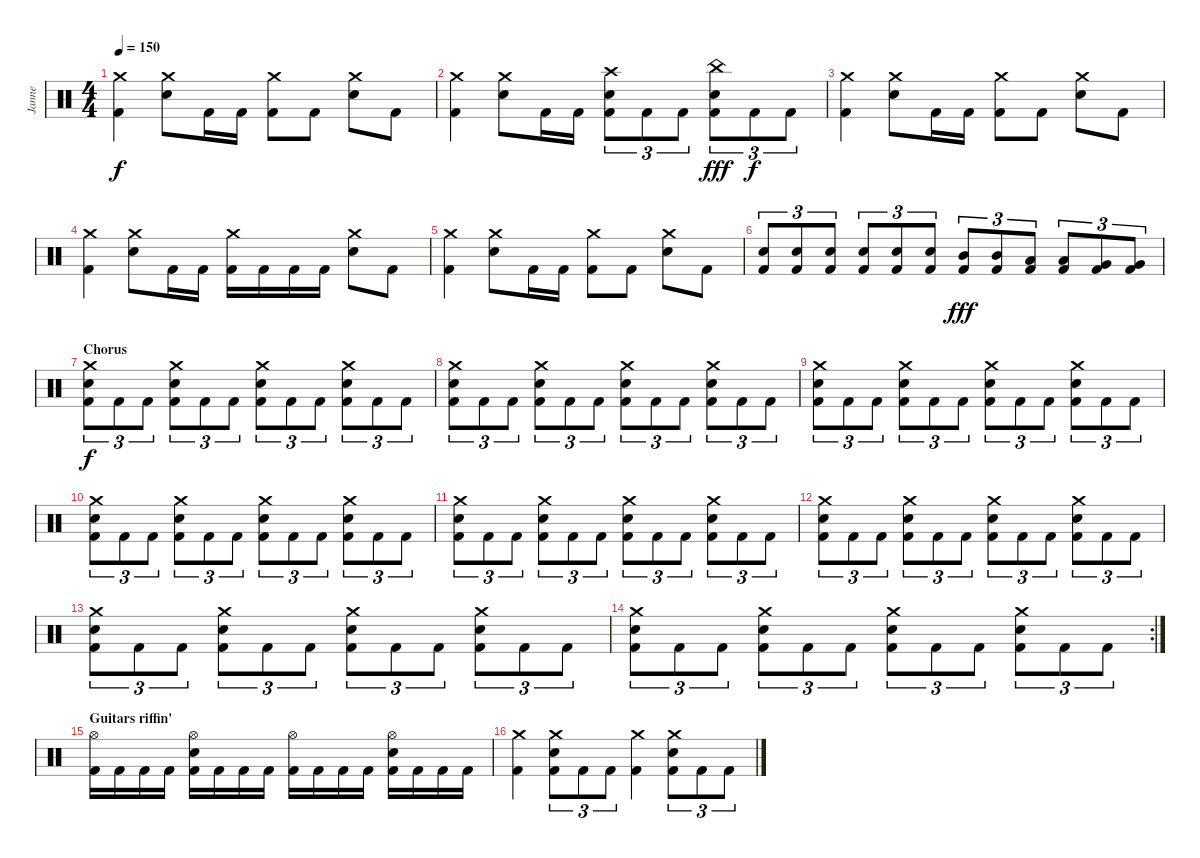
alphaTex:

\track ("Janne" "Janne") {instrument percussion}
\staff {score}
\articulation defaults
\ts (4 4)
\tempo 150
\clef neutral
\ks c
("Crash medium (hit)" "Kick (hit) 2").4{dy f} ("Crash medium (hit)" "Electric Snare (hit)").8 "Kick (hit) 2".16 "Kick (hit) 2".16 ("Crash medium (hit)" "Kick (hit) 2").8 "Kick (hit) 2".8 ("Crash medium (hit)" "Electric Snare (hit)").8 "Kick (hit) 2".8 |
("Crash medium (hit)" "Kick (hit) 2").4 ("Crash medium (hit)" "Electric Snare (hit)").8 "Kick (hit) 2".16 "Kick (hit) 2".16 ("Crash high (hit)" "Electric Snare (hit)" "Kick (hit) 2").8{tu (3 2)} "Kick (hit) 2".8{tu (3 2)} "Kick (hit) 2".8{tu (3 2)} ("China (hit)" "Electric Snare (hit)" "Kick (hit) 2").8{tu (3 2) dy fff} "Kick (hit) 2".8{tu (3 2) dy f} "Kick (hit) 2".8{tu (3 2)} |
("Crash medium (hit)" "Kick (hit) 2").4 ("Crash medium (hit)" "Electric Snare (hit)").8 "Kick (hit) 2".16 "Kick (hit) 2".16 ("Crash medium (hit)" "Kick (hit) 2").8 "Kick (hit) 2".8 ("Crash medium (hit)" "Electric Snare (hit)").8 "Kick (hit) 2".8 |
("Crash medium (hit)" "Kick (hit) 2").4 ("Crash medium (hit)" "Electric Snare (hit)").8 "Kick (hit) 2".16 "Kick (hit) 2".16 ("Crash medium (hit)" "Kick (hit) 2").16 "Kick (hit) 2".16 "Kick (hit) 2".16 "Kick (hit) 2".16 ("Crash medium (hit)" "Electric Snare (hit)").8 "Kick (hit) 2".8 |
("Crash medium (hit)" "Kick (hit) 2").4 ("Crash medium (hit)" "Electric Snare (hit)").8 "Kick (hit) 2".16 "Kick (hit) 2".16 ("Crash medium (hit)" "Kick (hit) 2").8 "Kick (hit) 2".8 ("Crash medium (hit)" "Electric Snare (hit)").8 "Kick (hit) 2".8 |
("Electric Snare (hit)" "Kick (hit) 2").8{tu (3 2)} ("Electric Snare (hit)" "Kick (hit) 2").8{tu (3 2)} ("Electric Snare (hit)" "Kick (hit) 2").8{tu (3 2)} ("Electric Snare (hit)" "Kick (hit) 2").8{tu (3 2)} ("Electric Snare (hit)" "Kick (hit) 2").8{tu (3 2)} ("Electric Snare (hit)" "Kick (hit) 2").8{tu (3 2)} ("Mid Tom (hit)" "Kick (hit) 2").8{tu (3 2) dy fff} ("Mid Tom (hit)" "Kick (hit) 2").8{tu (3 2)} ("Low Tom (hit)" "Kick (hit) 2").8{tu (3 2)} ("Low Tom (hit)" "Kick (hit) 2").8{tu (3 2)} ("Very Low Tom (hit)" "Kick (hit) 2").8{tu (3 2)} ("Very Low Tom (hit)" "Kick (hit) 2").8{tu (3 2)} |
\section ("" "Chorus")
("Crash medium (hit)" "Electric Snare (hit)" "Kick (hit) 2").8{tu (3 2) dy f} "Kick (hit) 2".8{tu (3 2)} "Kick (hit) 2".8{tu (3 2)} ("Crash medium (hit)" "Electric Snare (hit)" "Kick (hit) 2").8{tu (3 2)} "Kick (hit) 2".8{tu (3 2)} "Kick (hit) 2".8{tu (3 2)} ("Crash medium (hit)" "Electric Snare (hit)" "Kick (hit) 2").8{tu (3 2)} "Kick (hit) 2".8{tu (3 2)} "Kick (hit) 2".8{tu (3 2)} ("Crash medium (hit)" "Electric Snare (hit)" "Kick (hit) 2").8{tu (3 2)} "Kick (hit) 2".8{tu (3 2)} "Kick (hit) 2".8{tu (3 2)} |
("Crash medium (hit)" "Electric Snare (hit)" "Kick (hit) 2").8{tu (3 2)} "Kick (hit) 2".8{tu (3 2)} "Kick (hit) 2".8{tu (3 2)} ("Crash medium (hit)" "Electric Snare (hit)" "Kick (hit) 2").8{tu (3 2)} "Kick (hit) 2".8{tu (3 2)} "Kick (hit) 2".8{tu (3 2)} ("Crash medium (hit)" "Electric Snare (hit)" "Kick (hit) 2").8{tu (3 2)} "Kick (hit) 2".8{tu (3 2)} "Kick (hit) 2".8{tu (3 2)} ("Crash medium (hit)" "Electric Snare (hit)" "Kick (hit) 2").8{tu (3 2)} "Kick (hit) 2".8{tu (3 2)} "Kick (hit) 2".8{tu (3 2)} |
("Crash medium (hit)" "Electric Snare (hit)" "Kick (hit) 2").8{tu (3 2)} "Kick (hit) 2".8{tu (3 2)} "Kick (hit) 2".8{tu (3 2)} ("Crash medium (hit)" "Electric Snare (hit)" "Kick (hit) 2").8{tu (3 2)} "Kick (hit) 2".8{tu (3 2)} "Kick (hit) 2".8{tu (3 2)} ("Crash medium (hit)" "Electric Snare (hit)" "Kick (hit) 2").8{tu (3 2)} "Kick (hit) 2".8{tu (3 2)} "Kick (hit) 2".8{tu (3 2)} ("Crash medium (hit)" "Electric Snare (hit)" "Kick (hit) 2").8{tu (3 2)} "Kick (hit) 2".8{tu (3 2)} "Kick (hit) 2".8{tu (3 2)} |
("Crash medium (hit)" "Electric Snare (hit)" "Kick (hit) 2").8{tu (3 2)} "Kick (hit) 2".8{tu (3 2)} "Kick (hit) 2".8{tu (3 2)} ("Crash medium (hit)" "Electric Snare (hit)" "Kick (hit) 2").8{tu (3 2)} "Kick (hit) 2".8{tu (3 2)} "Kick (hit) 2".8{tu (3 2)} ("Crash medium (hit)" "Electric Snare (hit)" "Kick (hit) 2").8{tu (3 2)} "Kick (hit) 2".8{tu (3 2)} "Kick (hit) 2".8{tu (3 2)} ("Crash medium (hit)" "Electric Snare (hit)" "Kick (hit) 2").8{tu (3 2)} "Kick (hit) 2".8{tu (3 2)} "Kick (hit) 2".8{tu (3 2)} |
("Crash medium (hit)" "Electric Snare (hit)" "Kick (hit) 2").8{tu (3 2)} "Kick (hit) 2".8{tu (3 2)} "Kick (hit) 2".8{tu (3 2)} ("Crash medium (hit)" "Electric Snare (hit)" "Kick (hit) 2").8{tu (3 2)} "Kick (hit) 2".8{tu (3 2)} "Kick (hit) 2".8{tu (3 2)} ("Crash medium (hit)" "Electric Snare (hit)" "Kick (hit) 2").8{tu (3 2)} "Kick (hit) 2".8{tu (3 2)} "Kick (hit) 2".8{tu (3 2)} ("Crash medium (hit)" "Electric Snare (hit)" "Kick (hit) 2").8{tu (3 2)} "Kick (hit) 2".8{tu (3 2)} "Kick (hit) 2".8{tu (3 2)} |
("Crash medium (hit)" "Electric Snare (hit)" "Kick (hit) 2").8{tu (3 2)} "Kick (hit) 2".8{tu (3 2)} "Kick (hit) 2".8{tu (3 2)} ("Crash medium (hit)" "Electric Snare (hit)" "Kick (hit) 2").8{tu (3 2)} "Kick (hit) 2".8{tu (3 2)} "Kick (hit) 2".8{tu (3 2)} ("Crash medium (hit)" "Electric Snare (hit)" "Kick (hit) 2").8{tu (3 2)} "Kick (hit) 2".8{tu (3 2)} "Kick (hit) 2".8{tu (3 2)} ("Crash medium (hit)" "Electric Snare (hit)" "Kick (hit) 2").8{tu (3 2)} "Kick (hit) 2".8{tu (3 2)} "Kick (hit) 2".8{tu (3 2)} |
("Crash medium (hit)" "Electric Snare (hit)" "Kick (hit) 2").8{tu (3 2)} "Kick (hit) 2".8{tu (3 2)} "Kick (hit) 2".8{tu (3 2)} ("Crash medium (hit)" "Electric Snare (hit)" "Kick (hit) 2").8{tu (3 2)} "Kick (hit) 2".8{tu (3 2)} "Kick (hit) 2".8{tu (3 2)} ("Crash medium (hit)" "Electric Snare (hit)" "Kick (hit) 2").8{tu (3 2)} "Kick (hit) 2".8{tu (3 2)} "Kick (hit) 2".8{tu (3 2)} ("Crash medium (hit)" "Electric Snare (hit)" "Kick (hit) 2").8{tu (3 2)} "Kick (hit) 2".8{tu (3 2)} "Kick (hit) 2".8{tu (3 2)} |
\rc 2
("Crash medium (hit)" "Electric Snare (hit)" "Kick (hit) 2").8{tu (3 2)} "Kick (hit) 2".8{tu (3 2)} "Kick (hit) 2".8{tu (3 2)} ("Crash medium (hit)" "Electric Snare (hit)" "Kick (hit) 2").8{tu (3 2)} "Kick (hit) 2".8{tu (3 2)} "Kick (hit) 2".8{tu (3 2)} ("Crash medium (hit)" "Electric Snare (hit)" "Kick (hit) 2").8{tu (3 2)} "Kick (hit) 2".8{tu (3 2)} "Kick (hit) 2".8{tu (3 2)} ("Crash medium (hit)" "Electric Snare (hit)" "Kick (hit) 2").8{tu (3 2)} "Kick (hit) 2".8{tu (3 2)} "Kick (hit) 2".8{tu (3 2)} |
\section ("" "Guitars riffin'")
("Hi-Hat (open)" "Kick (hit) 2").16 "Kick (hit) 2".16 "Kick (hit) 2".16 "Kick (hit) 2".16 ("Hi-Hat (open)" "Electric Snare (hit)" "Kick (hit) 2").16 "Kick (hit) 2".16 "Kick (hit) 2".16 "Kick (hit) 2".16 ("Hi-Hat (open)" "Kick (hit) 2").16 "Kick (hit) 2".16 "Kick (hit) 2".16 "Kick (hit) 2".16 ("Hi-Hat (open)" "Electric Snare (hit)" "Kick (hit) 2").16 "Kick (hit) 2".16 "Kick (hit) 2".16 "Kick (hit) 2".16 |
("Crash medium (hit)" "Kick (hit) 2").4 ("Crash medium (hit)" "Electric Snare (hit)" "Kick (hit) 2").8{tu (3 2)} "Kick (hit) 2".8{tu (3 2)} "Kick (hit) 2".8{tu (3 2)} ("Crash medium (hit)" "Kick (hit) 2").4 ("Crash medium (hit)" "Electric Snare (hit)" "Kick (hit) 2").8{tu (3 2)} "Kick (hit) 2".8{tu (3 2)} "Kick (hit) 2".8{tu (3 2)}
